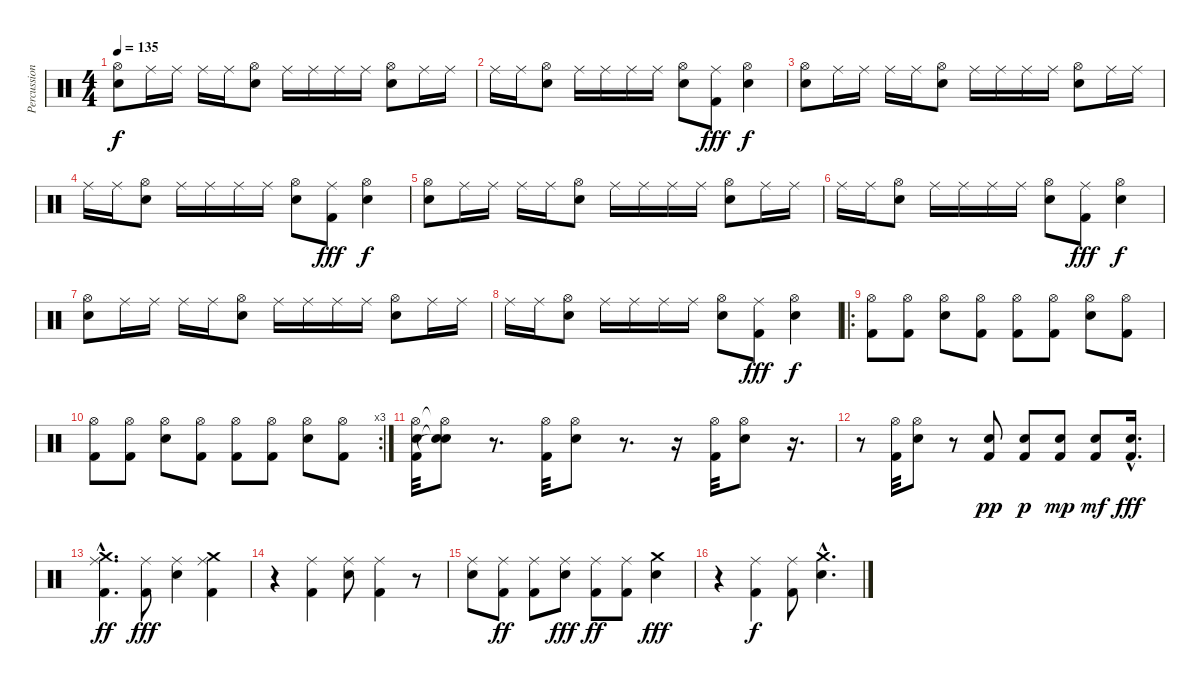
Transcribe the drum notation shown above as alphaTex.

\track ("Percussioni" "Percussion") {instrument percussion}
\staff {score}
\articulation defaults
\ts (4 4)
\tempo 135
\clef neutral
\ks c
("Hi-Hat (open)" "Snare (hit) 2").8{dy f} "Ride (middle)".16 "Ride (middle)".16 "Ride (middle)".16 "Ride (middle)".16 ("Hi-Hat (open)" "Snare (hit) 2").8 "Ride (middle)".16 "Ride (middle)".16 "Ride (middle)".16 "Ride (middle)".16 ("Hi-Hat (open)" "Snare (hit) 2").8 "Ride (middle)".16 "Ride (middle)".16 |
"Ride (middle)".16 "Ride (middle)".16 ("Hi-Hat (open)" "Snare (hit) 2").8 "Ride (middle)".16 "Ride (middle)".16 "Ride (middle)".16 "Ride (middle)".16 ("Hi-Hat (open)" "Snare (hit) 2").8 ("Ride (middle)" "Kick (hit) 2").8{dy fff} ("Hi-Hat (open)" "Snare (hit) 2").4{dy f} |
("Hi-Hat (open)" "Snare (hit) 2").8 "Ride (middle)".16 "Ride (middle)".16 "Ride (middle)".16 "Ride (middle)".16 ("Hi-Hat (open)" "Snare (hit) 2").8 "Ride (middle)".16 "Ride (middle)".16 "Ride (middle)".16 "Ride (middle)".16 ("Hi-Hat (open)" "Snare (hit) 2").8 "Ride (middle)".16 "Ride (middle)".16 |
"Ride (middle)".16 "Ride (middle)".16 ("Hi-Hat (open)" "Snare (hit) 2").8 "Ride (middle)".16 "Ride (middle)".16 "Ride (middle)".16 "Ride (middle)".16 ("Hi-Hat (open)" "Snare (hit) 2").8 ("Ride (middle)" "Kick (hit) 2").8{dy fff} ("Hi-Hat (open)" "Snare (hit) 2").4{dy f} |
("Hi-Hat (open)" "Snare (hit) 2").8 "Ride (middle)".16 "Ride (middle)".16 "Ride (middle)".16 "Ride (middle)".16 ("Hi-Hat (open)" "Snare (hit) 2").8 "Ride (middle)".16 "Ride (middle)".16 "Ride (middle)".16 "Ride (middle)".16 ("Hi-Hat (open)" "Snare (hit) 2").8 "Ride (middle)".16 "Ride (middle)".16 |
"Ride (middle)".16 "Ride (middle)".16 ("Hi-Hat (open)" "Snare (hit) 2").8 "Ride (middle)".16 "Ride (middle)".16 "Ride (middle)".16 "Ride (middle)".16 ("Hi-Hat (open)" "Snare (hit) 2").8 ("Ride (middle)" "Kick (hit) 2").8{dy fff} ("Hi-Hat (open)" "Snare (hit) 2").4{dy f} |
("Hi-Hat (open)" "Snare (hit) 2").8 "Ride (middle)".16 "Ride (middle)".16 "Ride (middle)".16 "Ride (middle)".16 ("Hi-Hat (open)" "Snare (hit) 2").8 "Ride (middle)".16 "Ride (middle)".16 "Ride (middle)".16 "Ride (middle)".16 ("Hi-Hat (open)" "Snare (hit) 2").8 "Ride (middle)".16 "Ride (middle)".16 |
"Ride (middle)".16 "Ride (middle)".16 ("Hi-Hat (open)" "Snare (hit) 2").8 "Ride (middle)".16 "Ride (middle)".16 "Ride (middle)".16 "Ride (middle)".16 ("Hi-Hat (open)" "Snare (hit) 2").8 ("Ride (middle)" "Kick (hit) 2").8{dy fff} ("Hi-Hat (open)" "Snare (hit) 2").4{dy f} |
\ro
("Hi-Hat (open)" "Kick (hit) 2").8 ("Hi-Hat (open)" "Kick (hit) 2").8 ("Hi-Hat (open)" "Snare (hit) 2").8 ("Hi-Hat (open)" "Kick (hit) 2").8 ("Hi-Hat (open)" "Kick (hit) 2").8 ("Hi-Hat (open)" "Kick (hit) 2").8 ("Hi-Hat (open)" "Snare (hit) 2").8 ("Hi-Hat (open)" "Kick (hit) 2").8 |
\rc 3
("Hi-Hat (open)" "Kick (hit) 2").8 ("Hi-Hat (open)" "Kick (hit) 2").8 ("Hi-Hat (open)" "Snare (hit) 2").8 ("Hi-Hat (open)" "Kick (hit) 2").8 ("Hi-Hat (open)" "Kick (hit) 2").8 ("Hi-Hat (open)" "Kick (hit) 2").8 ("Hi-Hat (open)" "Snare (hit) 2").8 ("Hi-Hat (open)" "Kick (hit) 2").8 |
("Hi-Hat (open)" "Kick (hit) 2" "Snare (hit) 2").32 ("Hi-Hat (open)"{t} "Snare (hit) 2"{t} "Snare (hit)"{t}).8 r.8{d} ("Hi-Hat (open)" "Kick (hit) 2").32 ("Hi-Hat (open)" "Snare (hit) 2").8 r.8{d} r.16 ("Hi-Hat (open)" "Kick (hit) 2").32 ("Hi-Hat (open)" "Snare (hit) 2").8 r.16{d} |
r.8 ("Hi-Hat (open)" "Kick (hit) 2").32 ("Hi-Hat (open)" "Snare (hit) 2").8 r.8 ("Kick (hit) 2" "Snare (hit) 2").8{dy pp} ("Kick (hit) 2" "Snare (hit) 2").8{dy p} ("Kick (hit) 2" "Snare (hit) 2").8{dy mp} ("Kick (hit) 2" "Snare (hit) 2").8{dy mf} ("Kick (hit) 2"{hac} "Snare (hit) 2"{hac}).16{d dy fff} |
("Ride (middle)"{hac} "Kick (hit) 2"{hac} "Crash medium (hit)"{hac}).4{d dy ff} ("Ride (middle)" "Kick (hit) 2").8{dy fff} ("Ride (middle)" "Snare (hit) 2").4 ("Ride (middle)" "Kick (hit) 2" "Crash medium (hit)").4 |
r.4 ("Ride (middle)" "Kick (hit) 2").4 ("Ride (middle)" "Snare (hit) 2").8 ("Ride (middle)" "Kick (hit) 2").4 r.8 |
("Ride (middle)" "Snare (hit) 2").8 ("Ride (middle)" "Kick (hit) 2").8{dy ff} ("Ride (middle)" "Kick (hit) 2").8 ("Ride (middle)" "Snare (hit) 2").8{dy fff} ("Ride (middle)" "Kick (hit) 2").8{dy ff} ("Ride (middle)" "Kick (hit) 2").8 ("Crash medium (hit)" "Snare (hit) 2").4{dy fff} |
r.4 ("Ride (middle)" "Kick (hit) 2").4{dy f} ("Ride (middle)" "Kick (hit) 2").8 ("Crash medium (hit)"{hac} "Snare (hit) 2"{hac}).4{d}
